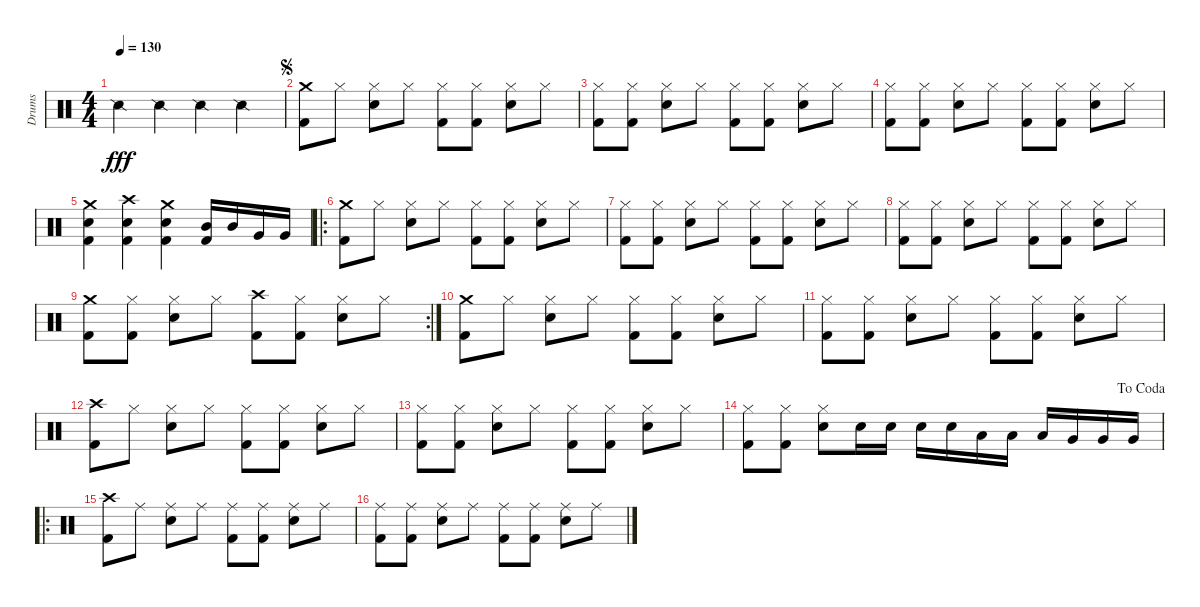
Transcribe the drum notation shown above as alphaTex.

\track ("Drums" "Drums") {instrument percussion}
\staff {score}
\articulation defaults
\ts (4 4)
\tempo 130
\clef neutral
\ks c "Snare (side stick) 2".4{dy fff} "Snare (side stick) 2".4 "Snare (side stick) 2".4 "Snare (side stick) 2".4
|
\jump segno
("Crash medium (hit)" "Kick (hit) 2").8 "Hi-Hat (closed)".8 ("Hi-Hat (closed)" "Snare (hit) 2").8 "Hi-Hat (closed)".8 ("Hi-Hat (closed)" "Kick (hit) 2").8 ("Hi-Hat (closed)" "Kick (hit) 2").8 ("Hi-Hat (closed)" "Snare (hit) 2").8 "Hi-Hat (closed)".8 |
("Hi-Hat (closed)" "Kick (hit) 2").8 ("Hi-Hat (closed)" "Kick (hit) 2").8 ("Hi-Hat (closed)" "Snare (hit) 2").8 "Hi-Hat (closed)".8 ("Hi-Hat (closed)" "Kick (hit) 2").8 ("Hi-Hat (closed)" "Kick (hit) 2").8 ("Hi-Hat (closed)" "Snare (hit) 2").8 "Hi-Hat (closed)".8 |
("Hi-Hat (closed)" "Kick (hit) 2").8 ("Hi-Hat (closed)" "Kick (hit) 2").8 ("Hi-Hat (closed)" "Snare (hit) 2").8 "Hi-Hat (closed)".8 ("Hi-Hat (closed)" "Kick (hit) 2").8 ("Hi-Hat (closed)" "Kick (hit) 2").8 ("Hi-Hat (closed)" "Snare (hit) 2").8 "Hi-Hat (closed)".8 |
("Crash medium (hit)" "Snare (hit) 2" "Kick (hit) 2").4 ("Crash high (hit)" "Snare (hit) 2" "Kick (hit) 2").4 ("Crash medium (hit)" "Snare (hit) 2" "Kick (hit) 2").4 ("Mid Tom (hit)" "Kick (hit) 2").16 "Mid Tom (hit)".16 "Very Low Tom (hit)".16 "Very Low Tom (hit)".16 |
\ro
("Crash medium (hit)" "Kick (hit) 2").8 "Hi-Hat (closed)".8 ("Hi-Hat (closed)" "Snare (hit) 2").8 "Hi-Hat (closed)".8 ("Hi-Hat (closed)" "Kick (hit) 2").8 ("Hi-Hat (closed)" "Kick (hit) 2").8 ("Hi-Hat (closed)" "Snare (hit) 2").8 "Hi-Hat (closed)".8 |
("Hi-Hat (closed)" "Kick (hit) 2").8 ("Hi-Hat (closed)" "Kick (hit) 2").8 ("Hi-Hat (closed)" "Snare (hit) 2").8 "Hi-Hat (closed)".8 ("Hi-Hat (closed)" "Kick (hit) 2").8 ("Hi-Hat (closed)" "Kick (hit) 2").8 ("Hi-Hat (closed)" "Snare (hit) 2").8 "Hi-Hat (closed)".8 |
("Hi-Hat (closed)" "Kick (hit) 2").8 ("Hi-Hat (closed)" "Kick (hit) 2").8 ("Hi-Hat (closed)" "Snare (hit) 2").8 "Hi-Hat (closed)".8 ("Hi-Hat (closed)" "Kick (hit) 2").8 ("Hi-Hat (closed)" "Kick (hit) 2").8 ("Hi-Hat (closed)" "Snare (hit) 2").8 "Hi-Hat (closed)".8 |
\rc 2
("Crash medium (hit)" "Kick (hit) 2").8 ("Hi-Hat (closed)" "Kick (hit) 2").8 ("Hi-Hat (closed)" "Snare (hit) 2").8 "Hi-Hat (closed)".8 ("Crash high (hit)" "Kick (hit) 2").8 ("Hi-Hat (closed)" "Kick (hit) 2").8 ("Hi-Hat (closed)" "Snare (hit) 2").8 "Hi-Hat (closed)".8 |
("Crash medium (hit)" "Kick (hit) 2").8 "Hi-Hat (closed)".8 ("Hi-Hat (closed)" "Snare (hit) 2").8 "Hi-Hat (closed)".8 ("Hi-Hat (closed)" "Kick (hit) 2").8 ("Hi-Hat (closed)" "Kick (hit) 2").8 ("Hi-Hat (closed)" "Snare (hit) 2").8 "Hi-Hat (closed)".8 |
("Hi-Hat (closed)" "Kick (hit) 2").8 ("Hi-Hat (closed)" "Kick (hit) 2").8 ("Hi-Hat (closed)" "Snare (hit) 2").8 "Hi-Hat (closed)".8 ("Hi-Hat (closed)" "Kick (hit) 2").8 ("Hi-Hat (closed)" "Kick (hit) 2").8 ("Hi-Hat (closed)" "Snare (hit) 2").8 "Hi-Hat (closed)".8 |
("Crash high (hit)" "Kick (hit) 2").8 "Hi-Hat (closed)".8 ("Hi-Hat (closed)" "Snare (hit) 2").8 "Hi-Hat (closed)".8 ("Hi-Hat (closed)" "Kick (hit) 2").8 ("Hi-Hat (closed)" "Kick (hit) 2").8 ("Hi-Hat (closed)" "Snare (hit) 2").8 "Hi-Hat (closed)".8 |
("Hi-Hat (closed)" "Kick (hit) 2").8 ("Hi-Hat (closed)" "Kick (hit) 2").8 ("Hi-Hat (closed)" "Snare (hit) 2").8 "Hi-Hat (closed)".8 ("Hi-Hat (closed)" "Kick (hit) 2").8 ("Hi-Hat (closed)" "Kick (hit) 2").8 ("Hi-Hat (closed)" "Snare (hit) 2").8 "Hi-Hat (closed)".8 |
\jump dacoda
("Hi-Hat (closed)" "Kick (hit) 2").8 ("Hi-Hat (closed)" "Kick (hit) 2").8 ("Hi-Hat (closed)" "Snare (hit) 2").8 "Snare (hit) 2".16 "Snare (hit) 2".16 "Snare (hit) 2".16 "Snare (hit) 2".16 "Low Tom (hit)".16 "Low Tom (hit)".16 "Low Tom (hit)".16 "Very Low Tom (hit)".16 "Very Low Tom (hit)".16 "Very Low Tom (hit)".16 |
\ro
("Crash high (hit)" "Kick (hit) 2").8 "Ride (middle)".8 ("Ride (middle)" "Snare (hit) 2").8 "Ride (middle)".8 ("Ride (middle)" "Kick (hit) 2").8 ("Ride (middle)" "Kick (hit) 2").8 ("Ride (middle)" "Snare (hit) 2").8 "Ride (middle)".8 |
("Ride (middle)" "Kick (hit) 2").8 ("Ride (middle)" "Kick (hit) 2").8 ("Ride (middle)" "Snare (hit) 2").8 "Ride (middle)".8 ("Ride (middle)" "Kick (hit) 2").8 ("Ride (middle)" "Kick (hit) 2").8 ("Ride (middle)" "Snare (hit) 2").8 "Ride (middle)".8
